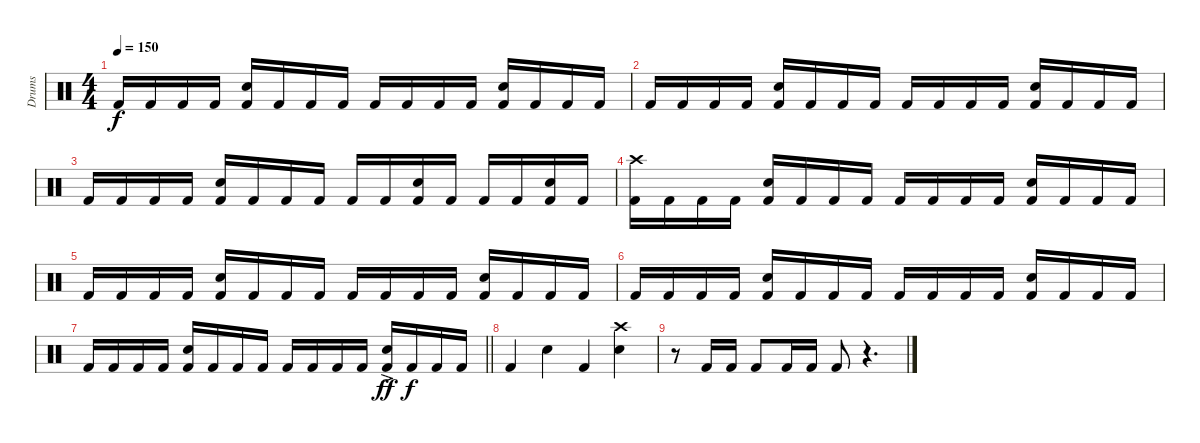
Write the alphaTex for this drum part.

\track ("Drums" "Drums") {instrument percussion}
\staff {score}
\articulation defaults
\ts (4 4)
\tempo 150
\clef neutral
\ks c "Kick (hit) 2".16{dy f} "Kick (hit) 2".16 "Kick (hit) 2".16 "Kick (hit) 2".16
("Snare (hit) 2" "Kick (hit) 2").16 "Kick (hit) 2".16 "Kick (hit) 2".16 "Kick (hit) 2".16 "Kick (hit) 2".16 "Kick (hit) 2".16 "Kick (hit) 2".16 "Kick (hit) 2".16 ("Snare (hit) 2" "Kick (hit) 2").16 "Kick (hit) 2".16 "Kick (hit) 2".16 "Kick (hit) 2".16 |
"Kick (hit) 2".16 "Kick (hit) 2".16 "Kick (hit) 2".16 "Kick (hit) 2".16 ("Snare (hit) 2" "Kick (hit) 2").16 "Kick (hit) 2".16 "Kick (hit) 2".16 "Kick (hit) 2".16 "Kick (hit) 2".16 "Kick (hit) 2".16 "Kick (hit) 2".16 "Kick (hit) 2".16 ("Snare (hit) 2" "Kick (hit) 2").16 "Kick (hit) 2".16 "Kick (hit) 2".16 "Kick (hit) 2".16 |
"Kick (hit) 2".16 "Kick (hit) 2".16 "Kick (hit) 2".16 "Kick (hit) 2".16 ("Snare (hit) 2" "Kick (hit) 2").16 "Kick (hit) 2".16 "Kick (hit) 2".16 "Kick (hit) 2".16 "Kick (hit) 2".16 "Kick (hit) 2".16 ("Snare (hit) 2" "Kick (hit) 2").16 "Kick (hit) 2".16 "Kick (hit) 2".16 "Kick (hit) 2".16 ("Snare (hit) 2" "Kick (hit) 2").16 "Kick (hit) 2".16 |
("Crash high (hit)" "Kick (hit) 2").16 "Kick (hit) 2".16 "Kick (hit) 2".16 "Kick (hit) 2".16 ("Snare (hit) 2" "Kick (hit) 2").16 "Kick (hit) 2".16 "Kick (hit) 2".16 "Kick (hit) 2".16 "Kick (hit) 2".16 "Kick (hit) 2".16 "Kick (hit) 2".16 "Kick (hit) 2".16 ("Snare (hit) 2" "Kick (hit) 2").16 "Kick (hit) 2".16 "Kick (hit) 2".16 "Kick (hit) 2".16 |
"Kick (hit) 2".16 "Kick (hit) 2".16 "Kick (hit) 2".16 "Kick (hit) 2".16 ("Snare (hit) 2" "Kick (hit) 2").16 "Kick (hit) 2".16 "Kick (hit) 2".16 "Kick (hit) 2".16 "Kick (hit) 2".16 "Kick (hit) 2".16 "Kick (hit) 2".16 "Kick (hit) 2".16 ("Snare (hit) 2" "Kick (hit) 2").16 "Kick (hit) 2".16 "Kick (hit) 2".16 "Kick (hit) 2".16 |
"Kick (hit) 2".16 "Kick (hit) 2".16 "Kick (hit) 2".16 "Kick (hit) 2".16 ("Snare (hit) 2" "Kick (hit) 2").16 "Kick (hit) 2".16 "Kick (hit) 2".16 "Kick (hit) 2".16 "Kick (hit) 2".16 "Kick (hit) 2".16 "Kick (hit) 2".16 "Kick (hit) 2".16 ("Snare (hit) 2" "Kick (hit) 2").16 "Kick (hit) 2".16 "Kick (hit) 2".16 "Kick (hit) 2".16 |
\barLineRight lightlight "Kick (hit) 2".16 "Kick (hit) 2".16 "Kick (hit) 2".16 "Kick (hit) 2".16
("Snare (hit) 2" "Kick (hit) 2").16 "Kick (hit) 2".16 "Kick (hit) 2".16 "Kick (hit) 2".16 "Kick (hit) 2".16 "Kick (hit) 2".16 "Kick (hit) 2".16 "Kick (hit) 2".16 ("Snare (hit) 2"{ac} "Kick (hit) 2").16{dy ff} "Kick (hit) 2".16{dy f} "Kick (hit) 2".16 "Kick (hit) 2".16 |
"Kick (hit) 2".4 "Snare (hit) 2".4 "Kick (hit) 2".4 ("Crash high (hit)" "Snare (hit) 2").4 |
r.8 "Kick (hit) 2".16 "Kick (hit) 2".16 "Kick (hit) 2".8 "Kick (hit) 2".16 "Kick (hit) 2".16 "Kick (hit) 2".8 r.4{d}
